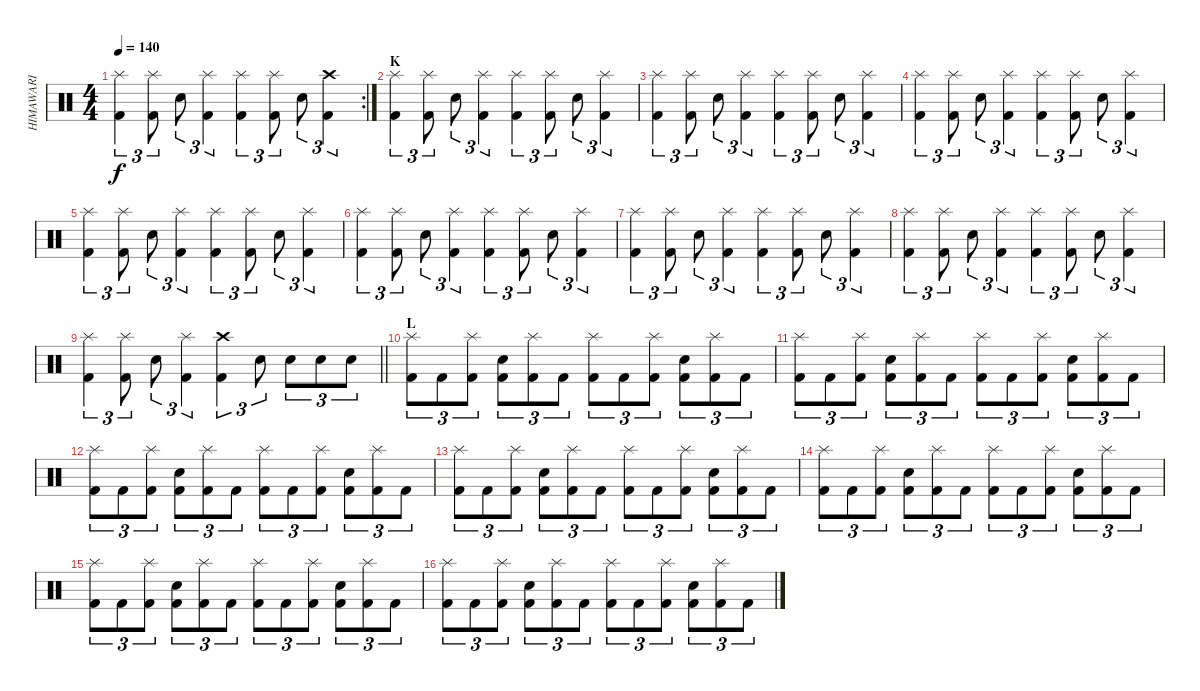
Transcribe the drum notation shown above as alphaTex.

\track ("HIMAWARI" "HIMAWARI") {instrument percussion}
\staff {score}
\articulation defaults
\rc 2
\ts (4 4)
\tempo 140
\clef neutral
\ks c
("Splash (hit)" "Kick (hit) 2").4{tu (3 2) dy f} ("Splash (hit)" "Kick (hit) 2").8{tu (3 2)} "Snare (hit) 2".8{tu (3 2)} ("Splash (hit)" "Kick (hit) 2").4{tu (3 2)} ("Splash (hit)" "Kick (hit) 2").4{tu (3 2)} ("Splash (hit)" "Kick (hit) 2").8{tu (3 2)} "Snare (hit) 2".8{tu (3 2)} ("Crash high (hit)" "Kick (hit) 2").4{tu (3 2)} |
\section ("" "K")
("Splash (hit)" "Kick (hit) 2").4{tu (3 2)} ("Splash (hit)" "Kick (hit) 2").8{tu (3 2)} "Snare (hit) 2".8{tu (3 2)} ("Splash (hit)" "Kick (hit) 2").4{tu (3 2)} ("Splash (hit)" "Kick (hit) 2").4{tu (3 2)} ("Splash (hit)" "Kick (hit) 2").8{tu (3 2)} "Snare (hit) 2".8{tu (3 2)} ("Splash (hit)" "Kick (hit) 2").4{tu (3 2)} |
("Splash (hit)" "Kick (hit) 2").4{tu (3 2)} ("Splash (hit)" "Kick (hit) 2").8{tu (3 2)} "Snare (hit) 2".8{tu (3 2)} ("Splash (hit)" "Kick (hit) 2").4{tu (3 2)} ("Splash (hit)" "Kick (hit) 2").4{tu (3 2)} ("Splash (hit)" "Kick (hit) 2").8{tu (3 2)} "Snare (hit) 2".8{tu (3 2)} ("Splash (hit)" "Kick (hit) 2").4{tu (3 2)} |
("Splash (hit)" "Kick (hit) 2").4{tu (3 2)} ("Splash (hit)" "Kick (hit) 2").8{tu (3 2)} "Snare (hit) 2".8{tu (3 2)} ("Splash (hit)" "Kick (hit) 2").4{tu (3 2)} ("Splash (hit)" "Kick (hit) 2").4{tu (3 2)} ("Splash (hit)" "Kick (hit) 2").8{tu (3 2)} "Snare (hit) 2".8{tu (3 2)} ("Splash (hit)" "Kick (hit) 2").4{tu (3 2)} |
("Splash (hit)" "Kick (hit) 2").4{tu (3 2)} ("Splash (hit)" "Kick (hit) 2").8{tu (3 2)} "Snare (hit) 2".8{tu (3 2)} ("Splash (hit)" "Kick (hit) 2").4{tu (3 2)} ("Splash (hit)" "Kick (hit) 2").4{tu (3 2)} ("Splash (hit)" "Kick (hit) 2").8{tu (3 2)} "Snare (hit) 2".8{tu (3 2)} ("Splash (hit)" "Kick (hit) 2").4{tu (3 2)} |
("Splash (hit)" "Kick (hit) 2").4{tu (3 2)} ("Splash (hit)" "Kick (hit) 2").8{tu (3 2)} "Snare (hit) 2".8{tu (3 2)} ("Splash (hit)" "Kick (hit) 2").4{tu (3 2)} ("Splash (hit)" "Kick (hit) 2").4{tu (3 2)} ("Splash (hit)" "Kick (hit) 2").8{tu (3 2)} "Snare (hit) 2".8{tu (3 2)} ("Splash (hit)" "Kick (hit) 2").4{tu (3 2)} |
("Splash (hit)" "Kick (hit) 2").4{tu (3 2)} ("Splash (hit)" "Kick (hit) 2").8{tu (3 2)} "Snare (hit) 2".8{tu (3 2)} ("Splash (hit)" "Kick (hit) 2").4{tu (3 2)} ("Splash (hit)" "Kick (hit) 2").4{tu (3 2)} ("Splash (hit)" "Kick (hit) 2").8{tu (3 2)} "Snare (hit) 2".8{tu (3 2)} ("Splash (hit)" "Kick (hit) 2").4{tu (3 2)} |
("Splash (hit)" "Kick (hit) 2").4{tu (3 2)} ("Splash (hit)" "Kick (hit) 2").8{tu (3 2)} "Snare (hit) 2".8{tu (3 2)} ("Splash (hit)" "Kick (hit) 2").4{tu (3 2)} ("Splash (hit)" "Kick (hit) 2").4{tu (3 2)} ("Splash (hit)" "Kick (hit) 2").8{tu (3 2)} "Snare (hit) 2".8{tu (3 2)} ("Splash (hit)" "Kick (hit) 2").4{tu (3 2)} |
\barLineRight lightlight
("Splash (hit)" "Kick (hit) 2").4{tu (3 2)} ("Splash (hit)" "Kick (hit) 2").8{tu (3 2)} "Snare (hit) 2".8{tu (3 2)} ("Splash (hit)" "Kick (hit) 2").4{tu (3 2)} ("Crash high (hit)" "Kick (hit) 2").4{tu (3 2)} "Snare (hit) 2".8{tu (3 2)} "Snare (hit) 2".8{tu (3 2)} "Snare (hit) 2".8{tu (3 2)} "Snare (hit) 2".8{tu (3 2)} |
\section ("" "L")
("Splash (hit)" "Kick (hit) 2").8{tu (3 2)} "Kick (hit) 2".8{tu (3 2)} ("Splash (hit)" "Kick (hit) 2").8{tu (3 2)} ("Snare (hit) 2" "Kick (hit) 2").8{tu (3 2)} ("Splash (hit)" "Kick (hit) 2").8{tu (3 2)} "Kick (hit) 2".8{tu (3 2)} ("Splash (hit)" "Kick (hit) 2").8{tu (3 2)} "Kick (hit) 2".8{tu (3 2)} ("Splash (hit)" "Kick (hit) 2").8{tu (3 2)} ("Snare (hit) 2" "Kick (hit) 2").8{tu (3 2)} ("Splash (hit)" "Kick (hit) 2").8{tu (3 2)} "Kick (hit) 2".8{tu (3 2)} |
("Splash (hit)" "Kick (hit) 2").8{tu (3 2)} "Kick (hit) 2".8{tu (3 2)} ("Splash (hit)" "Kick (hit) 2").8{tu (3 2)} ("Snare (hit) 2" "Kick (hit) 2").8{tu (3 2)} ("Splash (hit)" "Kick (hit) 2").8{tu (3 2)} "Kick (hit) 2".8{tu (3 2)} ("Splash (hit)" "Kick (hit) 2").8{tu (3 2)} "Kick (hit) 2".8{tu (3 2)} ("Splash (hit)" "Kick (hit) 2").8{tu (3 2)} ("Snare (hit) 2" "Kick (hit) 2").8{tu (3 2)} ("Splash (hit)" "Kick (hit) 2").8{tu (3 2)} "Kick (hit) 2".8{tu (3 2)} |
("Splash (hit)" "Kick (hit) 2").8{tu (3 2)} "Kick (hit) 2".8{tu (3 2)} ("Splash (hit)" "Kick (hit) 2").8{tu (3 2)} ("Snare (hit) 2" "Kick (hit) 2").8{tu (3 2)} ("Splash (hit)" "Kick (hit) 2").8{tu (3 2)} "Kick (hit) 2".8{tu (3 2)} ("Splash (hit)" "Kick (hit) 2").8{tu (3 2)} "Kick (hit) 2".8{tu (3 2)} ("Splash (hit)" "Kick (hit) 2").8{tu (3 2)} ("Snare (hit) 2" "Kick (hit) 2").8{tu (3 2)} ("Splash (hit)" "Kick (hit) 2").8{tu (3 2)} "Kick (hit) 2".8{tu (3 2)} |
("Splash (hit)" "Kick (hit) 2").8{tu (3 2)} "Kick (hit) 2".8{tu (3 2)} ("Splash (hit)" "Kick (hit) 2").8{tu (3 2)} ("Snare (hit) 2" "Kick (hit) 2").8{tu (3 2)} ("Splash (hit)" "Kick (hit) 2").8{tu (3 2)} "Kick (hit) 2".8{tu (3 2)} ("Splash (hit)" "Kick (hit) 2").8{tu (3 2)} "Kick (hit) 2".8{tu (3 2)} ("Splash (hit)" "Kick (hit) 2").8{tu (3 2)} ("Snare (hit) 2" "Kick (hit) 2").8{tu (3 2)} ("Splash (hit)" "Kick (hit) 2").8{tu (3 2)} "Kick (hit) 2".8{tu (3 2)} |
("Splash (hit)" "Kick (hit) 2").8{tu (3 2)} "Kick (hit) 2".8{tu (3 2)} ("Splash (hit)" "Kick (hit) 2").8{tu (3 2)} ("Snare (hit) 2" "Kick (hit) 2").8{tu (3 2)} ("Splash (hit)" "Kick (hit) 2").8{tu (3 2)} "Kick (hit) 2".8{tu (3 2)} ("Splash (hit)" "Kick (hit) 2").8{tu (3 2)} "Kick (hit) 2".8{tu (3 2)} ("Splash (hit)" "Kick (hit) 2").8{tu (3 2)} ("Snare (hit) 2" "Kick (hit) 2").8{tu (3 2)} ("Splash (hit)" "Kick (hit) 2").8{tu (3 2)} "Kick (hit) 2".8{tu (3 2)} |
("Splash (hit)" "Kick (hit) 2").8{tu (3 2)} "Kick (hit) 2".8{tu (3 2)} ("Splash (hit)" "Kick (hit) 2").8{tu (3 2)} ("Snare (hit) 2" "Kick (hit) 2").8{tu (3 2)} ("Splash (hit)" "Kick (hit) 2").8{tu (3 2)} "Kick (hit) 2".8{tu (3 2)} ("Splash (hit)" "Kick (hit) 2").8{tu (3 2)} "Kick (hit) 2".8{tu (3 2)} ("Splash (hit)" "Kick (hit) 2").8{tu (3 2)} ("Snare (hit) 2" "Kick (hit) 2").8{tu (3 2)} ("Splash (hit)" "Kick (hit) 2").8{tu (3 2)} "Kick (hit) 2".8{tu (3 2)} |
("Splash (hit)" "Kick (hit) 2").8{tu (3 2)} "Kick (hit) 2".8{tu (3 2)} ("Splash (hit)" "Kick (hit) 2").8{tu (3 2)} ("Snare (hit) 2" "Kick (hit) 2").8{tu (3 2)} ("Splash (hit)" "Kick (hit) 2").8{tu (3 2)} "Kick (hit) 2".8{tu (3 2)} ("Splash (hit)" "Kick (hit) 2").8{tu (3 2)} "Kick (hit) 2".8{tu (3 2)} ("Splash (hit)" "Kick (hit) 2").8{tu (3 2)} ("Snare (hit) 2" "Kick (hit) 2").8{tu (3 2)} ("Splash (hit)" "Kick (hit) 2").8{tu (3 2)} "Kick (hit) 2".8{tu (3 2)}
